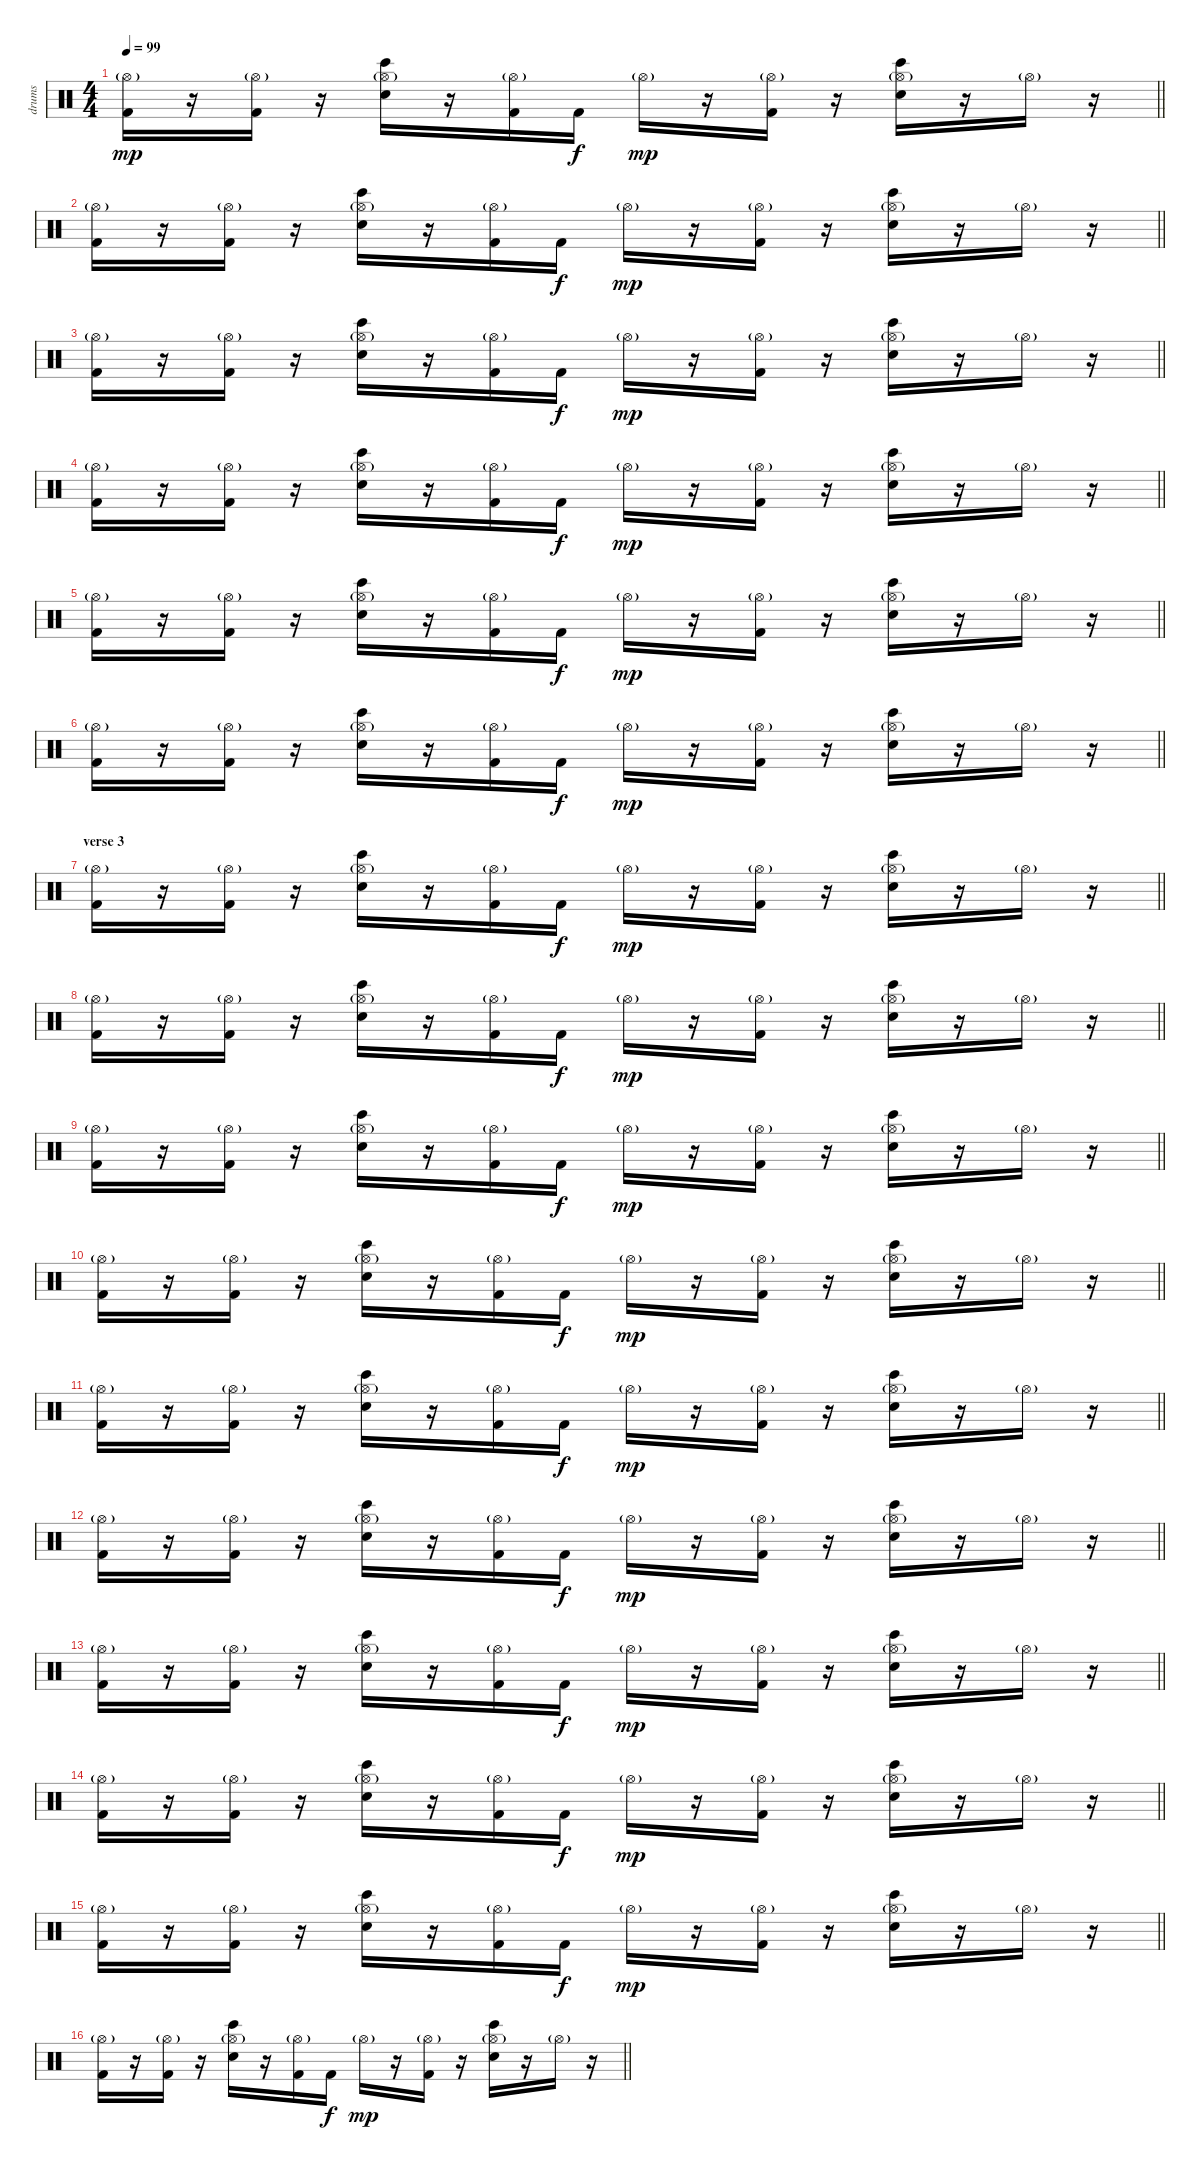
\track ("drums" "drums") {instrument percussion}
\staff {score}
\articulation defaults
\ts (4 4)
\tempo 99
\clef neutral
\barLineRight lightlight
\ks c
("Kick (hit) 2" "Hi-Hat (open)"{g}).16{dy mp} r.16 ("Kick (hit) 2" "Hi-Hat (open)"{g}).16 r.16 ("Bongo High (hit)" "Hand Clap (hit)" "Hi-Hat (open)"{g}).16 r.16 ("Kick (hit) 2" "Hi-Hat (open)"{g}).16 "Kick (hit) 2".16{dy f} "Hi-Hat (open)"{g}.16{dy mp} r.16 ("Kick (hit) 2" "Hi-Hat (open)"{g}).16 r.16 ("Bongo High (hit)" "Hand Clap (hit)" "Hi-Hat (open)"{g}).16 r.16 "Hi-Hat (open)"{g}.16 r.16 |
\barLineRight lightlight
("Kick (hit) 2" "Hi-Hat (open)"{g}).16 r.16 ("Kick (hit) 2" "Hi-Hat (open)"{g}).16 r.16 ("Bongo High (hit)" "Hand Clap (hit)" "Hi-Hat (open)"{g}).16 r.16 ("Kick (hit) 2" "Hi-Hat (open)"{g}).16 "Kick (hit) 2".16{dy f} "Hi-Hat (open)"{g}.16{dy mp} r.16 ("Kick (hit) 2" "Hi-Hat (open)"{g}).16 r.16 ("Bongo High (hit)" "Hand Clap (hit)" "Hi-Hat (open)"{g}).16 r.16 "Hi-Hat (open)"{g}.16 r.16 |
\barLineRight lightlight
("Kick (hit) 2" "Hi-Hat (open)"{g}).16 r.16 ("Kick (hit) 2" "Hi-Hat (open)"{g}).16 r.16 ("Bongo High (hit)" "Hand Clap (hit)" "Hi-Hat (open)"{g}).16 r.16 ("Kick (hit) 2" "Hi-Hat (open)"{g}).16 "Kick (hit) 2".16{dy f} "Hi-Hat (open)"{g}.16{dy mp} r.16 ("Kick (hit) 2" "Hi-Hat (open)"{g}).16 r.16 ("Bongo High (hit)" "Hand Clap (hit)" "Hi-Hat (open)"{g}).16 r.16 "Hi-Hat (open)"{g}.16 r.16 |
\barLineRight lightlight
("Kick (hit) 2" "Hi-Hat (open)"{g}).16 r.16 ("Kick (hit) 2" "Hi-Hat (open)"{g}).16 r.16 ("Bongo High (hit)" "Hand Clap (hit)" "Hi-Hat (open)"{g}).16 r.16 ("Kick (hit) 2" "Hi-Hat (open)"{g}).16 "Kick (hit) 2".16{dy f} "Hi-Hat (open)"{g}.16{dy mp} r.16 ("Kick (hit) 2" "Hi-Hat (open)"{g}).16 r.16 ("Bongo High (hit)" "Hand Clap (hit)" "Hi-Hat (open)"{g}).16 r.16 "Hi-Hat (open)"{g}.16 r.16 |
\barLineRight lightlight
("Kick (hit) 2" "Hi-Hat (open)"{g}).16 r.16 ("Kick (hit) 2" "Hi-Hat (open)"{g}).16 r.16 ("Bongo High (hit)" "Hand Clap (hit)" "Hi-Hat (open)"{g}).16 r.16 ("Kick (hit) 2" "Hi-Hat (open)"{g}).16 "Kick (hit) 2".16{dy f} "Hi-Hat (open)"{g}.16{dy mp} r.16 ("Kick (hit) 2" "Hi-Hat (open)"{g}).16 r.16 ("Bongo High (hit)" "Hand Clap (hit)" "Hi-Hat (open)"{g}).16 r.16 "Hi-Hat (open)"{g}.16 r.16 |
\barLineRight lightlight
("Kick (hit) 2" "Hi-Hat (open)"{g}).16 r.16 ("Kick (hit) 2" "Hi-Hat (open)"{g}).16 r.16 ("Bongo High (hit)" "Hand Clap (hit)" "Hi-Hat (open)"{g}).16 r.16 ("Kick (hit) 2" "Hi-Hat (open)"{g}).16 "Kick (hit) 2".16{dy f} "Hi-Hat (open)"{g}.16{dy mp} r.16 ("Kick (hit) 2" "Hi-Hat (open)"{g}).16 r.16 ("Bongo High (hit)" "Hand Clap (hit)" "Hi-Hat (open)"{g}).16 r.16 "Hi-Hat (open)"{g}.16 r.16 |
\section ("" "verse 3")
\barLineRight lightlight
("Kick (hit) 2" "Hi-Hat (open)"{g}).16 r.16 ("Kick (hit) 2" "Hi-Hat (open)"{g}).16 r.16 ("Bongo High (hit)" "Hand Clap (hit)" "Hi-Hat (open)"{g}).16 r.16 ("Kick (hit) 2" "Hi-Hat (open)"{g}).16 "Kick (hit) 2".16{dy f} "Hi-Hat (open)"{g}.16{dy mp} r.16 ("Kick (hit) 2" "Hi-Hat (open)"{g}).16 r.16 ("Bongo High (hit)" "Hand Clap (hit)" "Hi-Hat (open)"{g}).16 r.16 "Hi-Hat (open)"{g}.16 r.16 |
\barLineRight lightlight
("Kick (hit) 2" "Hi-Hat (open)"{g}).16 r.16 ("Kick (hit) 2" "Hi-Hat (open)"{g}).16 r.16 ("Bongo High (hit)" "Hand Clap (hit)" "Hi-Hat (open)"{g}).16 r.16 ("Kick (hit) 2" "Hi-Hat (open)"{g}).16 "Kick (hit) 2".16{dy f} "Hi-Hat (open)"{g}.16{dy mp} r.16 ("Kick (hit) 2" "Hi-Hat (open)"{g}).16 r.16 ("Bongo High (hit)" "Hand Clap (hit)" "Hi-Hat (open)"{g}).16 r.16 "Hi-Hat (open)"{g}.16 r.16 |
\barLineRight lightlight
("Kick (hit) 2" "Hi-Hat (open)"{g}).16 r.16 ("Kick (hit) 2" "Hi-Hat (open)"{g}).16 r.16 ("Bongo High (hit)" "Hand Clap (hit)" "Hi-Hat (open)"{g}).16 r.16 ("Kick (hit) 2" "Hi-Hat (open)"{g}).16 "Kick (hit) 2".16{dy f} "Hi-Hat (open)"{g}.16{dy mp} r.16 ("Kick (hit) 2" "Hi-Hat (open)"{g}).16 r.16 ("Bongo High (hit)" "Hand Clap (hit)" "Hi-Hat (open)"{g}).16 r.16 "Hi-Hat (open)"{g}.16 r.16 |
\barLineRight lightlight
("Kick (hit) 2" "Hi-Hat (open)"{g}).16 r.16 ("Kick (hit) 2" "Hi-Hat (open)"{g}).16 r.16 ("Bongo High (hit)" "Hand Clap (hit)" "Hi-Hat (open)"{g}).16 r.16 ("Kick (hit) 2" "Hi-Hat (open)"{g}).16 "Kick (hit) 2".16{dy f} "Hi-Hat (open)"{g}.16{dy mp} r.16 ("Kick (hit) 2" "Hi-Hat (open)"{g}).16 r.16 ("Bongo High (hit)" "Hand Clap (hit)" "Hi-Hat (open)"{g}).16 r.16 "Hi-Hat (open)"{g}.16 r.16 |
\barLineRight lightlight
("Kick (hit) 2" "Hi-Hat (open)"{g}).16 r.16 ("Kick (hit) 2" "Hi-Hat (open)"{g}).16 r.16 ("Bongo High (hit)" "Hand Clap (hit)" "Hi-Hat (open)"{g}).16 r.16 ("Kick (hit) 2" "Hi-Hat (open)"{g}).16 "Kick (hit) 2".16{dy f} "Hi-Hat (open)"{g}.16{dy mp} r.16 ("Kick (hit) 2" "Hi-Hat (open)"{g}).16 r.16 ("Bongo High (hit)" "Hand Clap (hit)" "Hi-Hat (open)"{g}).16 r.16 "Hi-Hat (open)"{g}.16 r.16 |
\barLineRight lightlight
("Kick (hit) 2" "Hi-Hat (open)"{g}).16 r.16 ("Kick (hit) 2" "Hi-Hat (open)"{g}).16 r.16 ("Bongo High (hit)" "Hand Clap (hit)" "Hi-Hat (open)"{g}).16 r.16 ("Kick (hit) 2" "Hi-Hat (open)"{g}).16 "Kick (hit) 2".16{dy f} "Hi-Hat (open)"{g}.16{dy mp} r.16 ("Kick (hit) 2" "Hi-Hat (open)"{g}).16 r.16 ("Bongo High (hit)" "Hand Clap (hit)" "Hi-Hat (open)"{g}).16 r.16 "Hi-Hat (open)"{g}.16 r.16 |
\barLineRight lightlight
("Kick (hit) 2" "Hi-Hat (open)"{g}).16 r.16 ("Kick (hit) 2" "Hi-Hat (open)"{g}).16 r.16 ("Bongo High (hit)" "Hand Clap (hit)" "Hi-Hat (open)"{g}).16 r.16 ("Kick (hit) 2" "Hi-Hat (open)"{g}).16 "Kick (hit) 2".16{dy f} "Hi-Hat (open)"{g}.16{dy mp} r.16 ("Kick (hit) 2" "Hi-Hat (open)"{g}).16 r.16 ("Bongo High (hit)" "Hand Clap (hit)" "Hi-Hat (open)"{g}).16 r.16 "Hi-Hat (open)"{g}.16 r.16 |
\barLineRight lightlight
("Kick (hit) 2" "Hi-Hat (open)"{g}).16 r.16 ("Kick (hit) 2" "Hi-Hat (open)"{g}).16 r.16 ("Bongo High (hit)" "Hand Clap (hit)" "Hi-Hat (open)"{g}).16 r.16 ("Kick (hit) 2" "Hi-Hat (open)"{g}).16 "Kick (hit) 2".16{dy f} "Hi-Hat (open)"{g}.16{dy mp} r.16 ("Kick (hit) 2" "Hi-Hat (open)"{g}).16 r.16 ("Bongo High (hit)" "Hand Clap (hit)" "Hi-Hat (open)"{g}).16 r.16 "Hi-Hat (open)"{g}.16 r.16 |
\barLineRight lightlight
("Kick (hit) 2" "Hi-Hat (open)"{g}).16 r.16 ("Kick (hit) 2" "Hi-Hat (open)"{g}).16 r.16 ("Bongo High (hit)" "Hand Clap (hit)" "Hi-Hat (open)"{g}).16 r.16 ("Kick (hit) 2" "Hi-Hat (open)"{g}).16 "Kick (hit) 2".16{dy f} "Hi-Hat (open)"{g}.16{dy mp} r.16 ("Kick (hit) 2" "Hi-Hat (open)"{g}).16 r.16 ("Bongo High (hit)" "Hand Clap (hit)" "Hi-Hat (open)"{g}).16 r.16 "Hi-Hat (open)"{g}.16 r.16 |
\barLineRight lightlight
("Kick (hit) 2" "Hi-Hat (open)"{g}).16 r.16 ("Kick (hit) 2" "Hi-Hat (open)"{g}).16 r.16 ("Bongo High (hit)" "Hand Clap (hit)" "Hi-Hat (open)"{g}).16 r.16 ("Kick (hit) 2" "Hi-Hat (open)"{g}).16 "Kick (hit) 2".16{dy f} "Hi-Hat (open)"{g}.16{dy mp} r.16 ("Kick (hit) 2" "Hi-Hat (open)"{g}).16 r.16 ("Bongo High (hit)" "Hand Clap (hit)" "Hi-Hat (open)"{g}).16 r.16 "Hi-Hat (open)"{g}.16 r.16
